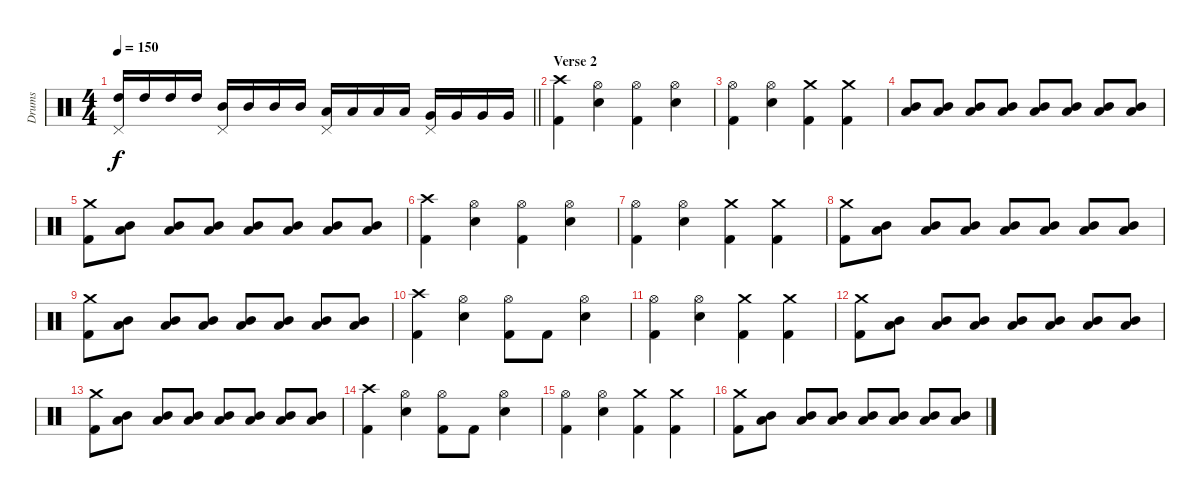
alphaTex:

\track ("Drums" "Drums") {instrument percussion}
\staff {score}
\articulation defaults
\ts (4 4)
\tempo 150
\clef neutral
\barLineRight lightlight
\ks c
("High Tom (hit)" "Pedal Hi-Hat (hit)").16{dy f} "High Tom (hit)".16 "High Tom (hit)".16 "High Tom (hit)".16 ("Mid Tom (hit)" "Pedal Hi-Hat (hit)").16 "Mid Tom (hit)".16 "Mid Tom (hit)".16 "Mid Tom (hit)".16 ("Low Tom (hit)" "Pedal Hi-Hat (hit)").16 "Low Tom (hit)".16 "Low Tom (hit)".16 "Low Tom (hit)".16 ("Very Low Tom (hit)" "Pedal Hi-Hat (hit)").16 "Very Low Tom (hit)".16 "Very Low Tom (hit)".16 "Very Low Tom (hit)".16 |
\section ("" "Verse 2")
("Crash high (hit)" "Kick (hit) 2").4 ("Hi-Hat (open)" "Electric Snare (hit)").4 ("Hi-Hat (open)" "Kick (hit) 2").4 ("Hi-Hat (open)" "Electric Snare (hit)").4 |
("Hi-Hat (open)" "Kick (hit) 2").4 ("Electric Snare (hit)" "Hi-Hat (open)").4 ("Crash medium (hit)" "Kick (hit) 2").4 ("Crash medium (hit)" "Kick (hit) 2").4 |
("Low Tom (hit)" "Mid Tom (hit)").8 ("Low Tom (hit)" "Mid Tom (hit)").8 ("Low Tom (hit)" "Mid Tom (hit)").8 ("Low Tom (hit)" "Mid Tom (hit)").8 ("Low Tom (hit)" "Mid Tom (hit)").8 ("Low Tom (hit)" "Mid Tom (hit)").8 ("Low Tom (hit)" "Mid Tom (hit)").8 ("Low Tom (hit)" "Mid Tom (hit)").8 |
("Crash medium (hit)" "Kick (hit) 2").8 ("Low Tom (hit)" "Mid Tom (hit)").8 ("Low Tom (hit)" "Mid Tom (hit)").8 ("Low Tom (hit)" "Mid Tom (hit)").8 ("Low Tom (hit)" "Mid Tom (hit)").8 ("Low Tom (hit)" "Mid Tom (hit)").8 ("Low Tom (hit)" "Mid Tom (hit)").8 ("Low Tom (hit)" "Mid Tom (hit)").8 |
("Crash high (hit)" "Kick (hit) 2").4 ("Hi-Hat (open)" "Electric Snare (hit)").4 ("Hi-Hat (open)" "Kick (hit) 2").4 ("Hi-Hat (open)" "Electric Snare (hit)").4 |
("Hi-Hat (open)" "Kick (hit) 2").4 ("Electric Snare (hit)" "Hi-Hat (open)").4 ("Crash medium (hit)" "Kick (hit) 2").4 ("Crash medium (hit)" "Kick (hit) 2").4 |
("Crash medium (hit)" "Kick (hit) 2").8 ("Low Tom (hit)" "Mid Tom (hit)").8 ("Low Tom (hit)" "Mid Tom (hit)").8 ("Low Tom (hit)" "Mid Tom (hit)").8 ("Low Tom (hit)" "Mid Tom (hit)").8 ("Low Tom (hit)" "Mid Tom (hit)").8 ("Low Tom (hit)" "Mid Tom (hit)").8 ("Low Tom (hit)" "Mid Tom (hit)").8 |
("Crash medium (hit)" "Kick (hit) 2").8 ("Low Tom (hit)" "Mid Tom (hit)").8 ("Low Tom (hit)" "Mid Tom (hit)").8 ("Low Tom (hit)" "Mid Tom (hit)").8 ("Low Tom (hit)" "Mid Tom (hit)").8 ("Low Tom (hit)" "Mid Tom (hit)").8 ("Low Tom (hit)" "Mid Tom (hit)").8 ("Low Tom (hit)" "Mid Tom (hit)").8 |
("Crash high (hit)" "Kick (hit) 2").4 ("Hi-Hat (open)" "Electric Snare (hit)").4 ("Hi-Hat (open)" "Kick (hit) 2").8 "Kick (hit) 2".8 ("Hi-Hat (open)" "Electric Snare (hit)").4 |
("Hi-Hat (open)" "Kick (hit) 2").4 ("Electric Snare (hit)" "Hi-Hat (open)").4 ("Crash medium (hit)" "Kick (hit) 2").4 ("Crash medium (hit)" "Kick (hit) 2").4 |
("Crash medium (hit)" "Kick (hit) 2").8 ("Low Tom (hit)" "Mid Tom (hit)").8 ("Low Tom (hit)" "Mid Tom (hit)").8 ("Low Tom (hit)" "Mid Tom (hit)").8 ("Low Tom (hit)" "Mid Tom (hit)").8 ("Low Tom (hit)" "Mid Tom (hit)").8 ("Low Tom (hit)" "Mid Tom (hit)").8 ("Low Tom (hit)" "Mid Tom (hit)").8 |
("Crash medium (hit)" "Kick (hit) 2").8 ("Low Tom (hit)" "Mid Tom (hit)").8 ("Low Tom (hit)" "Mid Tom (hit)").8 ("Low Tom (hit)" "Mid Tom (hit)").8 ("Low Tom (hit)" "Mid Tom (hit)").8 ("Low Tom (hit)" "Mid Tom (hit)").8 ("Low Tom (hit)" "Mid Tom (hit)").8 ("Low Tom (hit)" "Mid Tom (hit)").8 |
("Crash high (hit)" "Kick (hit) 2").4 ("Hi-Hat (open)" "Electric Snare (hit)").4 ("Hi-Hat (open)" "Kick (hit) 2").8 "Kick (hit) 2".8 ("Hi-Hat (open)" "Electric Snare (hit)").4 |
("Hi-Hat (open)" "Kick (hit) 2").4 ("Electric Snare (hit)" "Hi-Hat (open)").4 ("Crash medium (hit)" "Kick (hit) 2").4 ("Crash medium (hit)" "Kick (hit) 2").4 |
("Crash medium (hit)" "Kick (hit) 2").8 ("Low Tom (hit)" "Mid Tom (hit)").8 ("Low Tom (hit)" "Mid Tom (hit)").8 ("Low Tom (hit)" "Mid Tom (hit)").8 ("Low Tom (hit)" "Mid Tom (hit)").8 ("Low Tom (hit)" "Mid Tom (hit)").8 ("Low Tom (hit)" "Mid Tom (hit)").8 ("Low Tom (hit)" "Mid Tom (hit)").8
